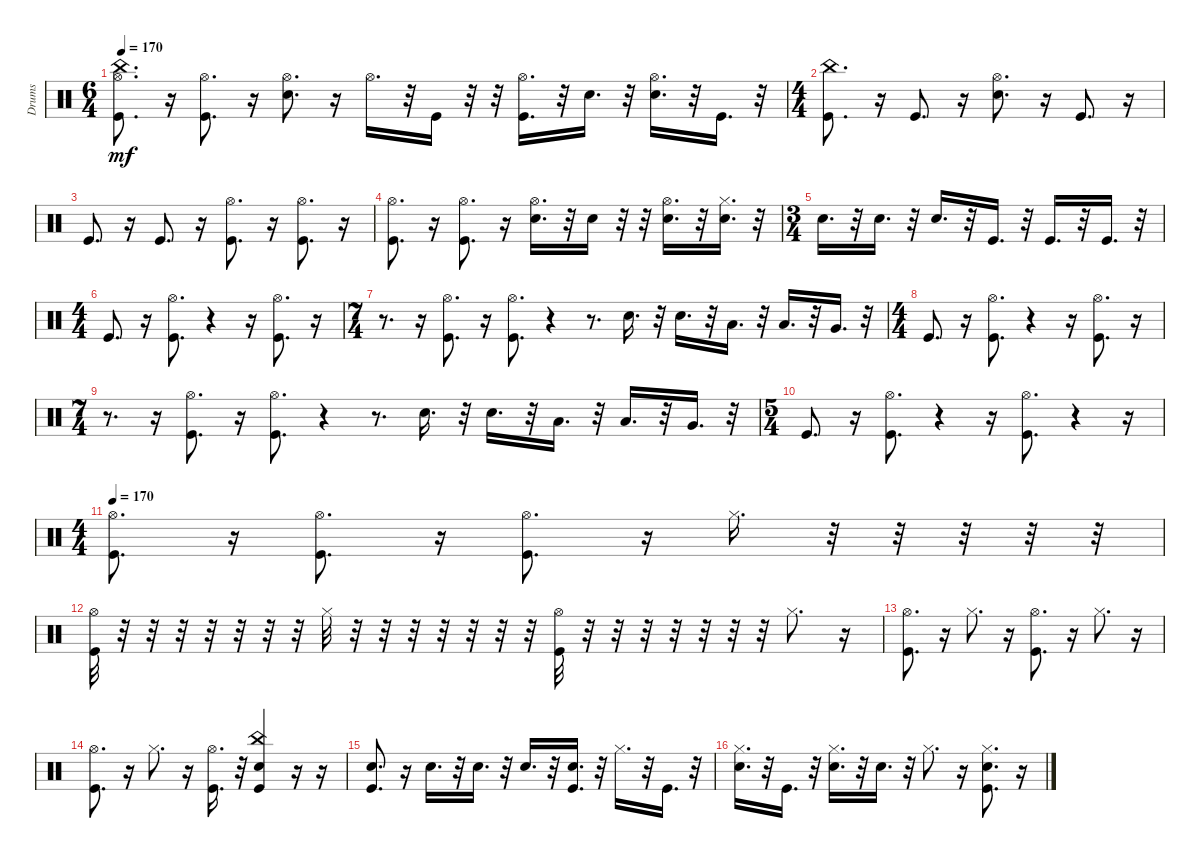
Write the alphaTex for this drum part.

\track ("Drums" "Drums") {instrument percussion}
\staff {score}
\articulation defaults
\ts (6 4)
\tempo 170
\clef neutral
\ks c
("Kick (hit)" "Hi-Hat (open)" "China (hit)").8{d dy mf} r.16 ("Kick (hit)" "Hi-Hat (open)").8{d} r.16 ("Snare (hit) 2" "Hi-Hat (open)").8{d} r.16 "Hi-Hat (open)".16{d} r.32 "Kick (hit)".16 r.32 r.32 ("Kick (hit)" "Hi-Hat (open)").16{d} r.32 "Snare (hit) 2".16{d} r.32 ("Snare (hit) 2" "Hi-Hat (open)").16{d} r.32 "Kick (hit)".16{d} r.32 |
\ts (4 4)
("Kick (hit)" "China (hit)").8{d} r.16 "Kick (hit)".8{d} r.16 ("Snare (hit) 2" "Hi-Hat (open)").8{d} r.16 "Kick (hit)".8{d} r.16 |
"Kick (hit)".8{d} r.16 "Kick (hit)".8{d} r.16 ("Kick (hit)" "Hi-Hat (open)").8{d} r.16 ("Kick (hit)" "Hi-Hat (open)").8{d} r.16 |
("Kick (hit)" "Hi-Hat (open)").8{d} r.16 ("Kick (hit)" "Hi-Hat (open)").8{d} r.16 ("Snare (hit) 2" "Hi-Hat (open)").16{d} r.32 "Snare (hit) 2".16 r.32 r.32 ("Snare (hit) 2" "Hi-Hat (open)").16{d} r.32 ("Snare (hit) 2" "Hi-Hat (closed)").16{d} r.32 |
\ts (3 4)
"Snare (hit) 2".16{d} r.32 "Snare (hit) 2".16{d} r.32 "Snare (hit) 2".16{d} r.32 "Kick (hit)".16{d} r.32 "Kick (hit)".16{d} r.32 "Kick (hit)".16{d} r.32 |
\ts (4 4)
"Kick (hit)".8{d} r.16 ("Kick (hit)" "Hi-Hat (open)").8{d} r.4 r.16 ("Kick (hit)" "Hi-Hat (open)").8{d} r.16 |
\ts (7 4)
r.8{d} r.16 ("Kick (hit)" "Hi-Hat (open)").8{d} r.16 ("Kick (hit)" "Hi-Hat (open)").8{d} r.4 r.8{d} "Snare (hit) 2".16{d} r.32 "Snare (hit) 2".16{d} r.32 "Low Tom (hit)".16{d} r.32 "Low Tom (hit)".16{d} r.32 "Very Low Tom (hit)".16{d} r.32 |
\ts (4 4)
"Kick (hit)".8{d} r.16 ("Kick (hit)" "Hi-Hat (open)").8{d} r.4 r.16 ("Kick (hit)" "Hi-Hat (open)").8{d} r.16 |
\ts (7 4)
r.8{d} r.16 ("Kick (hit)" "Hi-Hat (open)").8{d} r.16 ("Kick (hit)" "Hi-Hat (open)").8{d} r.4 r.8{d} "Snare (hit) 2".16{d} r.32 "Snare (hit) 2".16{d} r.32 "Low Tom (hit)".16{d} r.32 "Low Tom (hit)".16{d} r.32 "Very Low Tom (hit)".16{d} r.32 |
\ts (5 4)
"Kick (hit)".8{d} r.16 ("Kick (hit)" "Hi-Hat (open)").8{d} r.4 r.16 ("Kick (hit)" "Hi-Hat (open)").8{d} r.4 r.16 |
\ts (4 4)
\tempo 170
("Kick (hit)" "Hi-Hat (open)").8{d} r.16 ("Kick (hit)" "Hi-Hat (open)").8{d} r.16 ("Kick (hit)" "Hi-Hat (open)").8{d} r.16 "Hi-Hat (closed)".16{d} r.32 r.32 r.32 r.32 r.32 |
("Kick (hit)" "Hi-Hat (open)").32 r.32 r.32 r.32 r.32 r.32 r.32 r.32 "Hi-Hat (closed)".32 r.32 r.32 r.32 r.32 r.32 r.32 r.32 ("Kick (hit)" "Hi-Hat (open)").32 r.32 r.32 r.32 r.32 r.32 r.32 r.32 "Hi-Hat (closed)".8{d} r.16 |
("Kick (hit)" "Hi-Hat (open)").8{d} r.16 "Hi-Hat (closed)".8{d} r.16 ("Kick (hit)" "Hi-Hat (open)").8{d} r.16 "Hi-Hat (closed)".8{d} r.16 |
("Kick (hit)" "Hi-Hat (open)").8{d} r.16 "Hi-Hat (closed)".8{d} r.16 ("Kick (hit)" "Hi-Hat (open)").16{d} r.32 ("Kick (hit)" "Snare (hit) 2" "China (hit)").4 r.16 r.16 |
("Kick (hit)" "Snare (hit) 2").8{d} r.16 "Snare (hit) 2".16{d} r.32 "Snare (hit) 2".16{d} r.32 "Snare (hit) 2".16{d} r.32 ("Kick (hit)" "Snare (hit) 2").16{d} r.32 "Hi-Hat (closed)".16{d} r.32 "Kick (hit)".16{d} r.32 |
("Snare (hit) 2" "Hi-Hat (closed)").16{d} r.32 "Kick (hit)".16{d} r.32 ("Snare (hit) 2" "Hi-Hat (closed)").16{d} r.32 "Snare (hit) 2".16{d} r.32 "Hi-Hat (closed)".8{d} r.16 ("Kick (hit)" "Snare (hit) 2" "Hi-Hat (closed)").8{d} r.16
